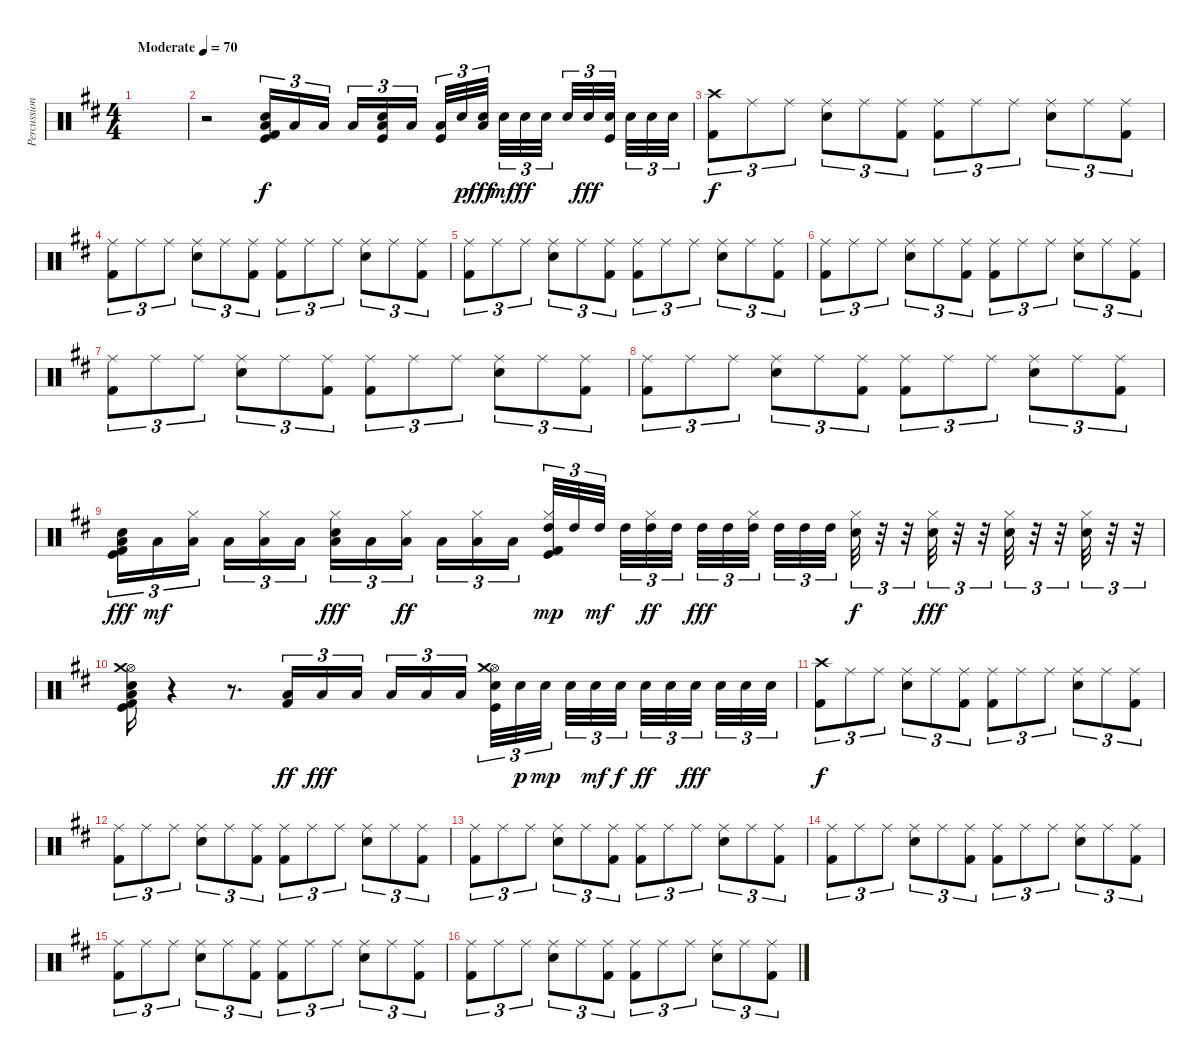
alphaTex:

\track ("Percussion" "Percussion") {instrument percussion}
\staff {score}
\articulation defaults
\ts (4 4)
\tempo (70 "Moderate")
\clef neutral
\ks bminor
|
r.2 ("Kick (hit)" "Electric Snare (hit)" "Low Floor Tom (hit)" "Kick (hit) 2").16{tu (3 2)} "Low Floor Tom (hit)".16{tu (3 2)} "Low Floor Tom (hit)".16{tu (3 2) beam splitsecondary} "Low Floor Tom (hit)".16{tu (3 2)} ("Kick (hit)" "Electric Snare (hit)" "Low Tom (hit)").16{tu (3 2)} "Low Tom (hit)".16{tu (3 2)} ("Kick (hit)" "Low Tom (hit)").32{tu (3 2)} "Electric Snare (hit)".32{tu (3 2) dy p} ("Electric Snare (hit)" "Low Tom (hit)").32{tu (3 2) dy fff beam splitsecondary} "Electric Snare (hit)".32{tu (3 2) dy mf} "Electric Snare (hit)".32{tu (3 2) dy ff} "Electric Snare (hit)".32{tu (3 2) beam splitsecondary} "Electric Snare (hit)".32{tu (3 2)} "Electric Snare (hit)".32{tu (3 2) dy fff} ("Kick (hit)" "Electric Snare (hit)").32{tu (3 2) beam splitsecondary} "Electric Snare (hit)".32{tu (3 2)} "Electric Snare (hit)".32{tu (3 2)} "Electric Snare (hit)".32{tu (3 2)} |
("Crash high (hit)" "Kick (hit) 2").8{tu (3 2) dy f} "Ride (middle)".8{tu (3 2)} "Ride (middle)".8{tu (3 2)} ("Snare (hit) 2" "Ride (middle)").8{tu (3 2)} "Ride (middle)".8{tu (3 2)} ("Ride (middle)" "Kick (hit) 2").8{tu (3 2)} ("Ride (middle)" "Kick (hit) 2").8{tu (3 2)} "Ride (middle)".8{tu (3 2)} "Ride (middle)".8{tu (3 2)} ("Snare (hit) 2" "Ride (middle)").8{tu (3 2)} "Ride (middle)".8{tu (3 2)} ("Ride (middle)" "Kick (hit) 2").8{tu (3 2)} |
("Ride (middle)" "Kick (hit) 2").8{tu (3 2)} "Ride (middle)".8{tu (3 2)} "Ride (middle)".8{tu (3 2)} ("Snare (hit) 2" "Ride (middle)").8{tu (3 2)} "Ride (middle)".8{tu (3 2)} ("Ride (middle)" "Kick (hit) 2").8{tu (3 2)} ("Ride (middle)" "Kick (hit) 2").8{tu (3 2)} "Ride (middle)".8{tu (3 2)} "Ride (middle)".8{tu (3 2)} ("Snare (hit) 2" "Ride (middle)").8{tu (3 2)} "Ride (middle)".8{tu (3 2)} ("Ride (middle)" "Kick (hit) 2").8{tu (3 2)} |
("Ride (middle)" "Kick (hit) 2").8{tu (3 2)} "Ride (middle)".8{tu (3 2)} "Ride (middle)".8{tu (3 2)} ("Snare (hit) 2" "Ride (middle)").8{tu (3 2)} "Ride (middle)".8{tu (3 2)} ("Ride (middle)" "Kick (hit) 2").8{tu (3 2)} ("Ride (middle)" "Kick (hit) 2").8{tu (3 2)} "Ride (middle)".8{tu (3 2)} "Ride (middle)".8{tu (3 2)} ("Snare (hit) 2" "Ride (middle)").8{tu (3 2)} "Ride (middle)".8{tu (3 2)} ("Ride (middle)" "Kick (hit) 2").8{tu (3 2)} |
("Ride (middle)" "Kick (hit) 2").8{tu (3 2)} "Ride (middle)".8{tu (3 2)} "Ride (middle)".8{tu (3 2)} ("Snare (hit) 2" "Ride (middle)").8{tu (3 2)} "Ride (middle)".8{tu (3 2)} ("Ride (middle)" "Kick (hit) 2").8{tu (3 2)} ("Ride (middle)" "Kick (hit) 2").8{tu (3 2)} "Ride (middle)".8{tu (3 2)} "Ride (middle)".8{tu (3 2)} ("Snare (hit) 2" "Ride (middle)").8{tu (3 2)} "Ride (middle)".8{tu (3 2)} ("Ride (middle)" "Kick (hit) 2").8{tu (3 2)} |
("Ride (middle)" "Kick (hit) 2").8{tu (3 2)} "Ride (middle)".8{tu (3 2)} "Ride (middle)".8{tu (3 2)} ("Snare (hit) 2" "Ride (middle)").8{tu (3 2)} "Ride (middle)".8{tu (3 2)} ("Ride (middle)" "Kick (hit) 2").8{tu (3 2)} ("Ride (middle)" "Kick (hit) 2").8{tu (3 2)} "Ride (middle)".8{tu (3 2)} "Ride (middle)".8{tu (3 2)} ("Snare (hit) 2" "Ride (middle)").8{tu (3 2)} "Ride (middle)".8{tu (3 2)} ("Ride (middle)" "Kick (hit) 2").8{tu (3 2)} |
("Ride (middle)" "Kick (hit) 2").8{tu (3 2)} "Ride (middle)".8{tu (3 2)} "Ride (middle)".8{tu (3 2)} ("Snare (hit) 2" "Ride (middle)").8{tu (3 2)} "Ride (middle)".8{tu (3 2)} ("Ride (middle)" "Kick (hit) 2").8{tu (3 2)} ("Ride (middle)" "Kick (hit) 2").8{tu (3 2)} "Ride (middle)".8{tu (3 2)} "Ride (middle)".8{tu (3 2)} ("Snare (hit) 2" "Ride (middle)").8{tu (3 2)} "Ride (middle)".8{tu (3 2)} ("Ride (middle)" "Kick (hit) 2").8{tu (3 2)} |
("Kick (hit)" "Electric Snare (hit)" "Low Floor Tom (hit)" "Kick (hit) 2").16{tu (3 2) dy fff} "Low Floor Tom (hit)".16{tu (3 2) dy mf} ("Low Floor Tom (hit)" "Hi-Hat (closed)").16{tu (3 2) beam splitsecondary} "Low Floor Tom (hit)".16{tu (3 2)} ("Low Floor Tom (hit)" "Hi-Hat (closed)").16{tu (3 2)} "Low Floor Tom (hit)".16{tu (3 2)} ("Electric Snare (hit)" "Hi-Hat (closed)" "Low Tom (hit)").16{tu (3 2) dy fff} "Low Tom (hit)".16{tu (3 2)} ("Hi-Hat (closed)" "Low Tom (hit)").16{tu (3 2) dy ff beam splitsecondary} "Low Tom (hit)".16{tu (3 2)} ("Hi-Hat (closed)" "Low Tom (hit)").16{tu (3 2)} "Low Tom (hit)".16{tu (3 2)} ("Kick (hit)" "Hi-Hat (closed)" "High Tom (hit)" "Kick (hit) 2").32{tu (3 2) dy mp} "High Tom (hit)".32{tu (3 2)} "High Tom (hit)".32{tu (3 2) dy mf beam splitsecondary} "High Tom (hit)".32{tu (3 2)} ("Hi-Hat (closed)" "High Tom (hit)").32{tu (3 2) dy ff} "High Tom (hit)".32{tu (3 2) beam splitsecondary} "High Tom (hit)".32{tu (3 2) dy fff} "High Tom (hit)".32{tu (3 2)} ("Hi-Hat (closed)" "High Tom (hit)").32{tu (3 2) beam splitsecondary} "High Tom (hit)".32{tu (3 2)} "High Tom (hit)".32{tu (3 2)} "High Tom (hit)".32{tu (3 2)} ("Electric Snare (hit)" "Hi-Hat (closed)").32{tu (3 2) dy f} r.32{tu (3 2)} r.32{tu (3 2)} ("Electric Snare (hit)" "Hi-Hat (closed)").32{tu (3 2) dy fff} r.32{tu (3 2)} r.32{tu (3 2)} ("Electric Snare (hit)" "Hi-Hat (closed)").32{tu (3 2)} r.32{tu (3 2)} r.32{tu (3 2)} ("Electric Snare (hit)" "Hi-Hat (closed)").32{tu (3 2)} r.32{tu (3 2)} r.32{tu (3 2)} |
("Kick (hit)" "Electric Snare (hit)" "Low Floor Tom (hit)" "Hi-Hat (open)" "Crash medium (hit)" "Kick (hit) 2").16 r.4 r.8{d} ("Low Tom (hit)" "Kick (hit) 2").16{tu (3 2) dy ff} "Low Tom (hit)".16{tu (3 2) dy fff} "Low Tom (hit)".16{tu (3 2) beam splitsecondary} "Low Tom (hit)".16{tu (3 2)} "Low Tom (hit)".16{tu (3 2)} "Low Tom (hit)".16{tu (3 2)} ("Kick (hit)" "Electric Snare (hit)" "Hi-Hat (open)" "Crash medium (hit)").32{tu (3 2)} "Electric Snare (hit)".32{tu (3 2) dy p} "Electric Snare (hit)".32{tu (3 2) dy mp beam splitsecondary} "Electric Snare (hit)".32{tu (3 2)} "Electric Snare (hit)".32{tu (3 2) dy mf} "Electric Snare (hit)".32{tu (3 2) dy f beam splitsecondary} "Electric Snare (hit)".32{tu (3 2) dy ff} "Electric Snare (hit)".32{tu (3 2)} "Electric Snare (hit)".32{tu (3 2) dy fff beam splitsecondary} "Electric Snare (hit)".32{tu (3 2)} "Electric Snare (hit)".32{tu (3 2)} "Electric Snare (hit)".32{tu (3 2)} |
("Crash high (hit)" "Kick (hit) 2").8{tu (3 2) dy f} "Ride (middle)".8{tu (3 2)} "Ride (middle)".8{tu (3 2)} ("Snare (hit) 2" "Ride (middle)").8{tu (3 2)} "Ride (middle)".8{tu (3 2)} ("Ride (middle)" "Kick (hit) 2").8{tu (3 2)} ("Ride (middle)" "Kick (hit) 2").8{tu (3 2)} "Ride (middle)".8{tu (3 2)} "Ride (middle)".8{tu (3 2)} ("Snare (hit) 2" "Ride (middle)").8{tu (3 2)} "Ride (middle)".8{tu (3 2)} ("Ride (middle)" "Kick (hit) 2").8{tu (3 2)} |
("Ride (middle)" "Kick (hit) 2").8{tu (3 2)} "Ride (middle)".8{tu (3 2)} "Ride (middle)".8{tu (3 2)} ("Snare (hit) 2" "Ride (middle)").8{tu (3 2)} "Ride (middle)".8{tu (3 2)} ("Ride (middle)" "Kick (hit) 2").8{tu (3 2)} ("Ride (middle)" "Kick (hit) 2").8{tu (3 2)} "Ride (middle)".8{tu (3 2)} "Ride (middle)".8{tu (3 2)} ("Snare (hit) 2" "Ride (middle)").8{tu (3 2)} "Ride (middle)".8{tu (3 2)} ("Ride (middle)" "Kick (hit) 2").8{tu (3 2)} |
("Ride (middle)" "Kick (hit) 2").8{tu (3 2)} "Ride (middle)".8{tu (3 2)} "Ride (middle)".8{tu (3 2)} ("Snare (hit) 2" "Ride (middle)").8{tu (3 2)} "Ride (middle)".8{tu (3 2)} ("Ride (middle)" "Kick (hit) 2").8{tu (3 2)} ("Ride (middle)" "Kick (hit) 2").8{tu (3 2)} "Ride (middle)".8{tu (3 2)} "Ride (middle)".8{tu (3 2)} ("Snare (hit) 2" "Ride (middle)").8{tu (3 2)} "Ride (middle)".8{tu (3 2)} ("Ride (middle)" "Kick (hit) 2").8{tu (3 2)} |
("Ride (middle)" "Kick (hit) 2").8{tu (3 2)} "Ride (middle)".8{tu (3 2)} "Ride (middle)".8{tu (3 2)} ("Snare (hit) 2" "Ride (middle)").8{tu (3 2)} "Ride (middle)".8{tu (3 2)} ("Ride (middle)" "Kick (hit) 2").8{tu (3 2)} ("Ride (middle)" "Kick (hit) 2").8{tu (3 2)} "Ride (middle)".8{tu (3 2)} "Ride (middle)".8{tu (3 2)} ("Snare (hit) 2" "Ride (middle)").8{tu (3 2)} "Ride (middle)".8{tu (3 2)} ("Ride (middle)" "Kick (hit) 2").8{tu (3 2)} |
("Ride (middle)" "Kick (hit) 2").8{tu (3 2)} "Ride (middle)".8{tu (3 2)} "Ride (middle)".8{tu (3 2)} ("Snare (hit) 2" "Ride (middle)").8{tu (3 2)} "Ride (middle)".8{tu (3 2)} ("Ride (middle)" "Kick (hit) 2").8{tu (3 2)} ("Ride (middle)" "Kick (hit) 2").8{tu (3 2)} "Ride (middle)".8{tu (3 2)} "Ride (middle)".8{tu (3 2)} ("Snare (hit) 2" "Ride (middle)").8{tu (3 2)} "Ride (middle)".8{tu (3 2)} ("Ride (middle)" "Kick (hit) 2").8{tu (3 2)} |
("Ride (middle)" "Kick (hit) 2").8{tu (3 2)} "Ride (middle)".8{tu (3 2)} "Ride (middle)".8{tu (3 2)} ("Snare (hit) 2" "Ride (middle)").8{tu (3 2)} "Ride (middle)".8{tu (3 2)} ("Ride (middle)" "Kick (hit) 2").8{tu (3 2)} ("Ride (middle)" "Kick (hit) 2").8{tu (3 2)} "Ride (middle)".8{tu (3 2)} "Ride (middle)".8{tu (3 2)} ("Snare (hit) 2" "Ride (middle)").8{tu (3 2)} "Ride (middle)".8{tu (3 2)} ("Ride (middle)" "Kick (hit) 2").8{tu (3 2)}
